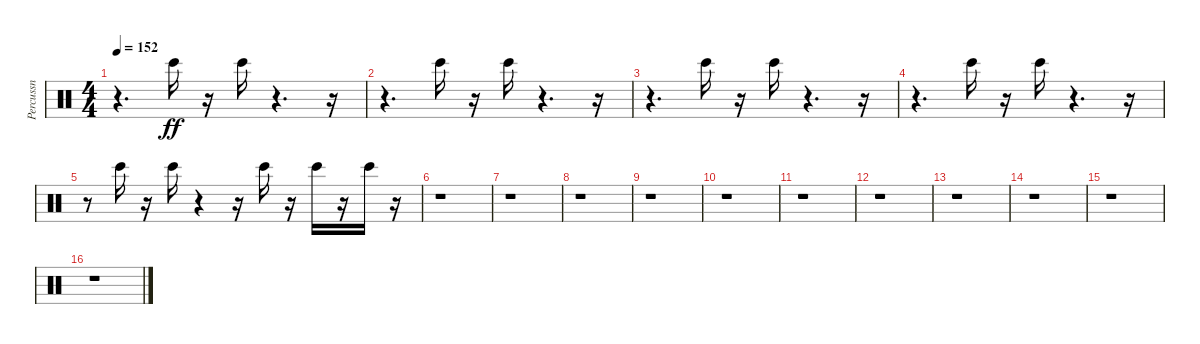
\track ("Percussn" "Percussn") {instrument percussion}
\staff {score}
\articulation defaults
\ts (4 4)
\tempo 152
\clef neutral
\ks c
r.4{d dy ff} "Bongo High (hit)".16{balance 5} r.16 "Bongo High (hit)".16{balance 7} r.4{d} r.16 |
r.4{d} "Bongo High (hit)".16{balance 12} r.16 "Bongo High (hit)".16{balance 9} r.4{d} r.16 |
r.4{d} "Bongo High (hit)".16{balance 2} r.16 "Bongo High (hit)".16{balance 2} r.4{d} r.16 |
r.4{d} "Bongo High (hit)".16{balance 7} r.16 "Bongo High (hit)".16{balance 10} r.4{d} r.16 |
r.8 "Bongo High (hit)".16{balance 7} r.16 "Bongo High (hit)".16{balance 8} r.4 r.16 "Bongo High (hit)".16{balance 8} r.16 "Bongo High (hit)".16{balance 11} r.16 "Bongo High (hit)".16{balance 8} r.16 |
r.1 |
r.1 |
r.1 |
r.1 |
r.1 |
r.1 |
r.1 |
r.1 |
r.1 |
r.1 |
r.1
